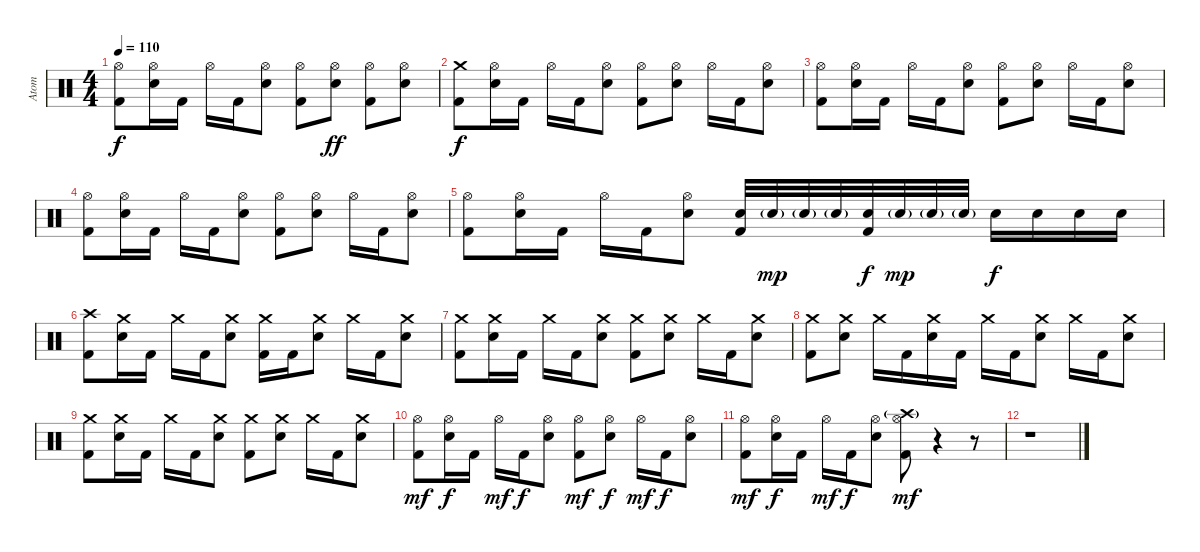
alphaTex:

\track ("Atom" "Atom") {instrument percussion}
\staff {score}
\articulation defaults
\ts (4 4)
\tempo 110
\clef neutral
\ks c
("Hi-Hat (open)" "Kick (hit) 2").8{dy f} ("Hi-Hat (open)" "Electric Snare (hit)").16 "Kick (hit) 2".16 "Hi-Hat (open)".16 "Kick (hit) 2".16 ("Hi-Hat (open)" "Electric Snare (hit)").8 ("Hi-Hat (open)" "Kick (hit) 2").8 ("Hi-Hat (open)" "Electric Snare (hit)").8{dy ff} ("Hi-Hat (open)" "Kick (hit) 2").8 ("Hi-Hat (open)" "Electric Snare (hit)").8 |
("Crash medium (hit)" "Kick (hit) 2").8{dy f} ("Hi-Hat (open)" "Electric Snare (hit)").16 "Kick (hit) 2".16 "Hi-Hat (open)".16 "Kick (hit) 2".16 ("Hi-Hat (open)" "Electric Snare (hit)").8 ("Hi-Hat (open)" "Kick (hit) 2").8 ("Hi-Hat (open)" "Electric Snare (hit)").8 "Hi-Hat (open)".16 "Kick (hit) 2".16 ("Hi-Hat (open)" "Electric Snare (hit)").8 |
("Hi-Hat (open)" "Kick (hit) 2").8 ("Hi-Hat (open)" "Electric Snare (hit)").16 "Kick (hit) 2".16 "Hi-Hat (open)".16 "Kick (hit) 2".16 ("Hi-Hat (open)" "Electric Snare (hit)").8 ("Hi-Hat (open)" "Kick (hit) 2").8 ("Hi-Hat (open)" "Electric Snare (hit)").8 "Hi-Hat (open)".16 "Kick (hit) 2".16 ("Hi-Hat (open)" "Electric Snare (hit)").8 |
("Hi-Hat (open)" "Kick (hit) 2").8 ("Hi-Hat (open)" "Electric Snare (hit)").16 "Kick (hit) 2".16 "Hi-Hat (open)".16 "Kick (hit) 2".16 ("Hi-Hat (open)" "Electric Snare (hit)").8 ("Hi-Hat (open)" "Kick (hit) 2").8 ("Hi-Hat (open)" "Electric Snare (hit)").8 "Hi-Hat (open)".16 "Kick (hit) 2".16 ("Hi-Hat (open)" "Electric Snare (hit)").8 |
("Hi-Hat (open)" "Kick (hit) 2").8 ("Hi-Hat (open)" "Electric Snare (hit)").16 "Kick (hit) 2".16 "Hi-Hat (open)".16 "Kick (hit) 2".16 ("Hi-Hat (open)" "Electric Snare (hit)").8 ("Electric Snare (hit)" "Kick (hit) 2").32 "Electric Snare (hit)"{g}.32{dy mp} "Electric Snare (hit)"{g}.32 "Electric Snare (hit)"{g}.32 ("Electric Snare (hit)" "Kick (hit) 2").32{dy f} "Electric Snare (hit)"{g}.32{dy mp} "Electric Snare (hit)"{g}.32 "Electric Snare (hit)"{g}.32 "Electric Snare (hit)".16{dy f} "Electric Snare (hit)".16 "Electric Snare (hit)".16 "Electric Snare (hit)".16 |
("Crash high (hit)" "Kick (hit) 2").8 ("Crash medium (hit)" "Electric Snare (hit)").16 "Kick (hit) 2".16 "Crash medium (hit)".16 "Kick (hit) 2".16 ("Crash medium (hit)" "Electric Snare (hit)").8 ("Crash medium (hit)" "Kick (hit) 2").16 "Kick (hit) 2".16 ("Crash medium (hit)" "Electric Snare (hit)").8 "Crash medium (hit)".16 "Kick (hit) 2".16 ("Crash medium (hit)" "Electric Snare (hit)").8 |
("Crash medium (hit)" "Kick (hit) 2").8 ("Crash medium (hit)" "Electric Snare (hit)").16 "Kick (hit) 2".16 "Crash medium (hit)".16 "Kick (hit) 2".16 ("Crash medium (hit)" "Electric Snare (hit)").8 ("Crash medium (hit)" "Kick (hit) 2").8 ("Crash medium (hit)" "Electric Snare (hit)").8 "Crash medium (hit)".16 "Kick (hit) 2".16 ("Crash medium (hit)" "Electric Snare (hit)").8 |
("Crash medium (hit)" "Kick (hit) 2").8 ("Crash medium (hit)" "Electric Snare (hit)").8 "Crash medium (hit)".16 "Kick (hit) 2".16 ("Crash medium (hit)" "Electric Snare (hit)").16 "Kick (hit) 2".16 "Crash medium (hit)".16 "Kick (hit) 2".16 ("Crash medium (hit)" "Electric Snare (hit)").8 "Crash medium (hit)".16 "Kick (hit) 2".16 ("Crash medium (hit)" "Electric Snare (hit)").8 |
("Crash medium (hit)" "Kick (hit) 2").8 ("Crash medium (hit)" "Electric Snare (hit)").16 "Kick (hit) 2".16 "Crash medium (hit)".16 "Kick (hit) 2".16 ("Crash medium (hit)" "Electric Snare (hit)").8 ("Crash medium (hit)" "Kick (hit) 2").8 ("Crash medium (hit)" "Electric Snare (hit)").8 "Crash medium (hit)".16 "Kick (hit) 2".16 ("Crash medium (hit)" "Electric Snare (hit)").8 |
("Hi-Hat (open)" "Kick (hit) 2").8{dy mf} ("Hi-Hat (open)" "Electric Snare (hit)").16{dy f} "Kick (hit) 2".16 "Hi-Hat (open)".16{dy mf} "Kick (hit) 2".16{dy f} ("Hi-Hat (open)" "Electric Snare (hit)").8 ("Hi-Hat (open)" "Kick (hit) 2").8{dy mf} ("Hi-Hat (open)" "Electric Snare (hit)").8{dy f} "Hi-Hat (open)".16{dy mf} "Kick (hit) 2".16{dy f} ("Hi-Hat (open)" "Electric Snare (hit)").8 |
("Hi-Hat (open)" "Kick (hit) 2").8{dy mf} ("Hi-Hat (open)" "Electric Snare (hit)").16{dy f} "Kick (hit) 2".16 "Hi-Hat (open)".16{dy mf} "Kick (hit) 2".16{dy f} ("Hi-Hat (open)" "Electric Snare (hit)").8 ("Crash high (hit)"{g} "Hi-Hat (open)" "Kick (hit) 2").8{dy mf} r.4 r.8 |
r.1
